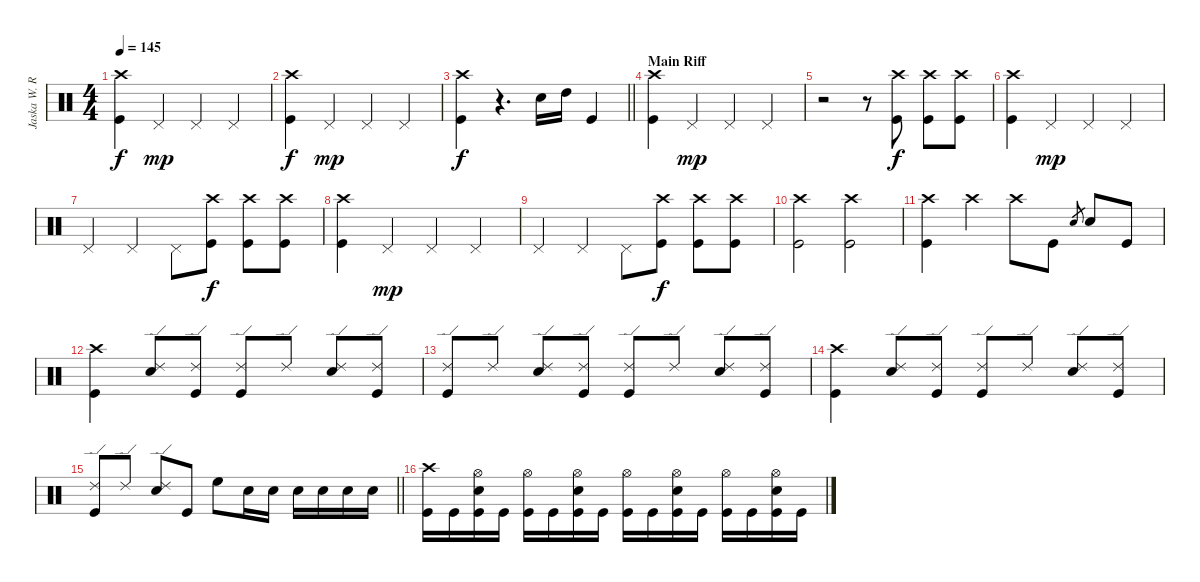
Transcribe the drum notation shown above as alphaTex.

\track ("Jaska W. Raatikainen" "Jaska W. R") {instrument percussion}
\staff {score}
\articulation defaults
\ts (4 4)
\tempo 145
\clef neutral
\ks c
("Crash high (hit)" "Kick (hit)").4{dy f} "Pedal Hi-Hat (hit)".4{dy mp} "Pedal Hi-Hat (hit)".4 "Pedal Hi-Hat (hit)".4 |
("Crash high (hit)" "Kick (hit)").4{dy f} "Pedal Hi-Hat (hit)".4{dy mp} "Pedal Hi-Hat (hit)".4 "Pedal Hi-Hat (hit)".4 |
\barLineRight lightlight
("Crash high (hit)" "Kick (hit)").4{dy f} r.4{d} "Snare (hit) 2".16 "High Tom (hit)".16 "Kick (hit)".4 |
\section ("" "Main Riff")
("Crash high (hit)" "Kick (hit)").4 "Pedal Hi-Hat (hit)".4{dy mp} "Pedal Hi-Hat (hit)".4 "Pedal Hi-Hat (hit)".4 |
r.2 r.8 ("Crash high (hit)" "Kick (hit)").8{dy f} ("Crash high (hit)" "Kick (hit)").8 ("Crash high (hit)" "Kick (hit)").8 |
("Crash high (hit)" "Kick (hit)").4 "Pedal Hi-Hat (hit)".4{dy mp} "Pedal Hi-Hat (hit)".4 "Pedal Hi-Hat (hit)".4 |
"Pedal Hi-Hat (hit)".4 "Pedal Hi-Hat (hit)".4 "Pedal Hi-Hat (hit)".8 ("Crash high (hit)" "Kick (hit)").8{dy f} ("Crash high (hit)" "Kick (hit)").8 ("Crash high (hit)" "Kick (hit)").8 |
("Crash high (hit)" "Kick (hit)").4 "Pedal Hi-Hat (hit)".4{dy mp} "Pedal Hi-Hat (hit)".4 "Pedal Hi-Hat (hit)".4 |
"Pedal Hi-Hat (hit)".4 "Pedal Hi-Hat (hit)".4 "Pedal Hi-Hat (hit)".8 ("Crash high (hit)" "Kick (hit)").8{dy f} ("Crash high (hit)" "Kick (hit)").8 ("Crash high (hit)" "Kick (hit)").8 |
("Crash high (hit)" "Kick (hit)").2 ("Crash high (hit)" "Kick (hit)").2 |
("Crash high (hit)" "Kick (hit)").4 "Crash high (hit)".4 "Crash high (hit)".8 "Kick (hit)".8 "Snare (hit) 2".8{gr} "Snare (hit) 2".8 "Kick (hit)".8 |
("Crash high (hit)" "Kick (hit)").4 ("Ride (edge) 2" "Snare (hit) 2").8 ("Ride (edge) 2" "Kick (hit)").8 ("Ride (edge) 2" "Kick (hit)").8 "Ride (edge) 2".8 ("Ride (edge) 2" "Snare (hit) 2").8 ("Ride (edge) 2" "Kick (hit)").8 |
("Ride (edge) 2" "Kick (hit)").8 "Ride (edge) 2".8 ("Ride (edge) 2" "Snare (hit) 2").8 ("Ride (edge) 2" "Kick (hit)").8 ("Ride (edge) 2" "Kick (hit)").8 "Ride (edge) 2".8 ("Ride (edge) 2" "Snare (hit) 2").8 ("Ride (edge) 2" "Kick (hit)").8 |
("Crash high (hit)" "Kick (hit)").4 ("Ride (edge) 2" "Snare (hit) 2").8 ("Ride (edge) 2" "Kick (hit)").8 ("Ride (edge) 2" "Kick (hit)").8 "Ride (edge) 2".8 ("Ride (edge) 2" "Snare (hit) 2").8 ("Ride (edge) 2" "Kick (hit)").8 |
\barLineRight lightlight
("Ride (edge) 2" "Kick (hit)").8 "Ride (edge) 2".8 ("Ride (edge) 2" "Snare (hit) 2").8 "Kick (hit)".8 "High Floor Tom (hit)".8 "Snare (hit) 2".16 "Snare (hit) 2".16 "Snare (hit) 2".16 "Snare (hit) 2".16 "Snare (hit) 2".16 "Snare (hit) 2".16 |
("Crash high (hit)" "Kick (hit)").16 "Kick (hit)".16 ("Hi-Hat (open)" "Snare (hit) 2" "Kick (hit)").16 "Kick (hit)".16 ("Hi-Hat (open)" "Kick (hit)").16 "Kick (hit)".16 ("Hi-Hat (open)" "Snare (hit) 2" "Kick (hit)").16 "Kick (hit)".16 ("Hi-Hat (open)" "Kick (hit)").16 "Kick (hit)".16 ("Hi-Hat (open)" "Snare (hit) 2" "Kick (hit)").16 "Kick (hit)".16 ("Hi-Hat (open)" "Kick (hit)").16 "Kick (hit)".16 ("Hi-Hat (open)" "Snare (hit) 2" "Kick (hit)").16 "Kick (hit)".16
